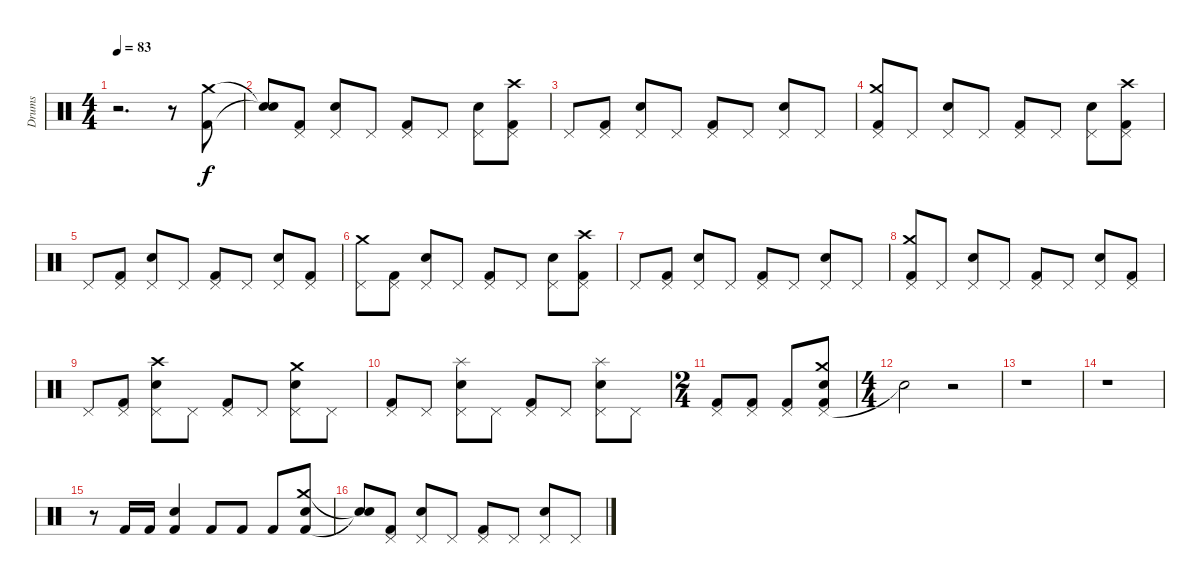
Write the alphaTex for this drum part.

\track ("Drums" "Drums") {instrument percussion}
\staff {score}
\articulation defaults
\ts (4 4)
\tempo 83
\clef neutral
\ks c
r.2{d dy f} r.8 ("Kick (hit) 2" "Crash medium (hit)").8 |
("Snare (hit)"{t} "Snare (hit)"{t}).8 ("Pedal Hi-Hat (hit)" "Kick (hit) 2").8 ("Pedal Hi-Hat (hit)" "Snare (hit) 2").8 "Pedal Hi-Hat (hit)".8 ("Pedal Hi-Hat (hit)" "Kick (hit) 2").8 "Pedal Hi-Hat (hit)".8 ("Pedal Hi-Hat (hit)" "Snare (hit) 2").8 ("Crash high (hit)" "Pedal Hi-Hat (hit)" "Kick (hit) 2").8 |
"Pedal Hi-Hat (hit)".8 ("Pedal Hi-Hat (hit)" "Kick (hit) 2").8 ("Pedal Hi-Hat (hit)" "Snare (hit) 2").8 "Pedal Hi-Hat (hit)".8 ("Kick (hit) 2" "Pedal Hi-Hat (hit)").8 "Pedal Hi-Hat (hit)".8 ("Pedal Hi-Hat (hit)" "Snare (hit) 2").8 "Pedal Hi-Hat (hit)".8 |
("Kick (hit) 2" "Crash medium (hit)" "Pedal Hi-Hat (hit)").8 "Pedal Hi-Hat (hit)".8 ("Pedal Hi-Hat (hit)" "Snare (hit) 2").8 "Pedal Hi-Hat (hit)".8 ("Pedal Hi-Hat (hit)" "Kick (hit) 2").8 "Pedal Hi-Hat (hit)".8 ("Pedal Hi-Hat (hit)" "Snare (hit) 2").8 ("Crash high (hit)" "Pedal Hi-Hat (hit)" "Kick (hit) 2").8 |
"Pedal Hi-Hat (hit)".8 ("Pedal Hi-Hat (hit)" "Kick (hit) 2").8 ("Pedal Hi-Hat (hit)" "Snare (hit) 2").8 "Pedal Hi-Hat (hit)".8 ("Pedal Hi-Hat (hit)" "Kick (hit) 2").8 "Pedal Hi-Hat (hit)".8 ("Pedal Hi-Hat (hit)" "Snare (hit) 2").8 ("Pedal Hi-Hat (hit)" "Kick (hit) 2").8 |
("Crash medium (hit)" "Pedal Hi-Hat (hit)").8 ("Pedal Hi-Hat (hit)" "Kick (hit) 2").8 ("Pedal Hi-Hat (hit)" "Snare (hit) 2").8 "Pedal Hi-Hat (hit)".8 ("Pedal Hi-Hat (hit)" "Kick (hit) 2").8 "Pedal Hi-Hat (hit)".8 ("Pedal Hi-Hat (hit)" "Snare (hit) 2").8 ("Crash high (hit)" "Pedal Hi-Hat (hit)" "Kick (hit) 2").8 |
"Pedal Hi-Hat (hit)".8 ("Pedal Hi-Hat (hit)" "Kick (hit) 2").8 ("Pedal Hi-Hat (hit)" "Snare (hit) 2").8 "Pedal Hi-Hat (hit)".8 ("Pedal Hi-Hat (hit)" "Kick (hit) 2").8 "Pedal Hi-Hat (hit)".8 ("Pedal Hi-Hat (hit)" "Snare (hit) 2").8 "Pedal Hi-Hat (hit)".8 |
("Pedal Hi-Hat (hit)" "Kick (hit) 2" "Crash medium (hit)").8 "Pedal Hi-Hat (hit)".8 ("Pedal Hi-Hat (hit)" "Snare (hit) 2").8 "Pedal Hi-Hat (hit)".8 ("Pedal Hi-Hat (hit)" "Kick (hit) 2").8 "Pedal Hi-Hat (hit)".8 ("Pedal Hi-Hat (hit)" "Snare (hit) 2").8 ("Pedal Hi-Hat (hit)" "Kick (hit) 2").8 |
"Pedal Hi-Hat (hit)".8 ("Pedal Hi-Hat (hit)" "Kick (hit) 2").8 ("Pedal Hi-Hat (hit)" "Crash high (hit)" "Snare (hit) 2").8 "Pedal Hi-Hat (hit)".8 ("Pedal Hi-Hat (hit)" "Kick (hit) 2").8 "Pedal Hi-Hat (hit)".8 ("Pedal Hi-Hat (hit)" "Crash medium (hit)" "Snare (hit) 2").8 "Pedal Hi-Hat (hit)".8 |
("Pedal Hi-Hat (hit)" "Kick (hit) 2").8 "Pedal Hi-Hat (hit)".8 ("Pedal Hi-Hat (hit)" "Splash (hit)" "Snare (hit) 2").8 "Pedal Hi-Hat (hit)".8 ("Pedal Hi-Hat (hit)" "Kick (hit) 2").8 "Pedal Hi-Hat (hit)".8 ("Pedal Hi-Hat (hit)" "Snare (hit) 2" "Splash (hit)").8 "Pedal Hi-Hat (hit)".8 |
\ts (2 4)
("Pedal Hi-Hat (hit)" "Kick (hit) 2").8 ("Pedal Hi-Hat (hit)" "Kick (hit) 2").8 ("Pedal Hi-Hat (hit)" "Kick (hit) 2").8 ("Pedal Hi-Hat (hit)" "Crash medium (hit)" "Kick (hit) 2" "Snare (hit) 2").8 |
\ts (4 4)
"Snare (hit)"{t}.2 r.2 |
r.1 |
r.1 |
r.8 "Kick (hit) 2".16 "Kick (hit) 2".16 ("Snare (hit) 2" "Kick (hit) 2").4 "Kick (hit) 2".8 "Kick (hit) 2".8 "Kick (hit) 2".8 ("Crash medium (hit)" "Kick (hit) 2" "Snare (hit) 2").8 |
("Snare (hit)"{t} "Snare (hit)"{t}).8 ("Pedal Hi-Hat (hit)" "Kick (hit) 2").8 ("Pedal Hi-Hat (hit)" "Snare (hit) 2").8 "Pedal Hi-Hat (hit)".8 ("Pedal Hi-Hat (hit)" "Kick (hit) 2").8 "Pedal Hi-Hat (hit)".8 ("Pedal Hi-Hat (hit)" "Snare (hit) 2").8 "Pedal Hi-Hat (hit)".8
